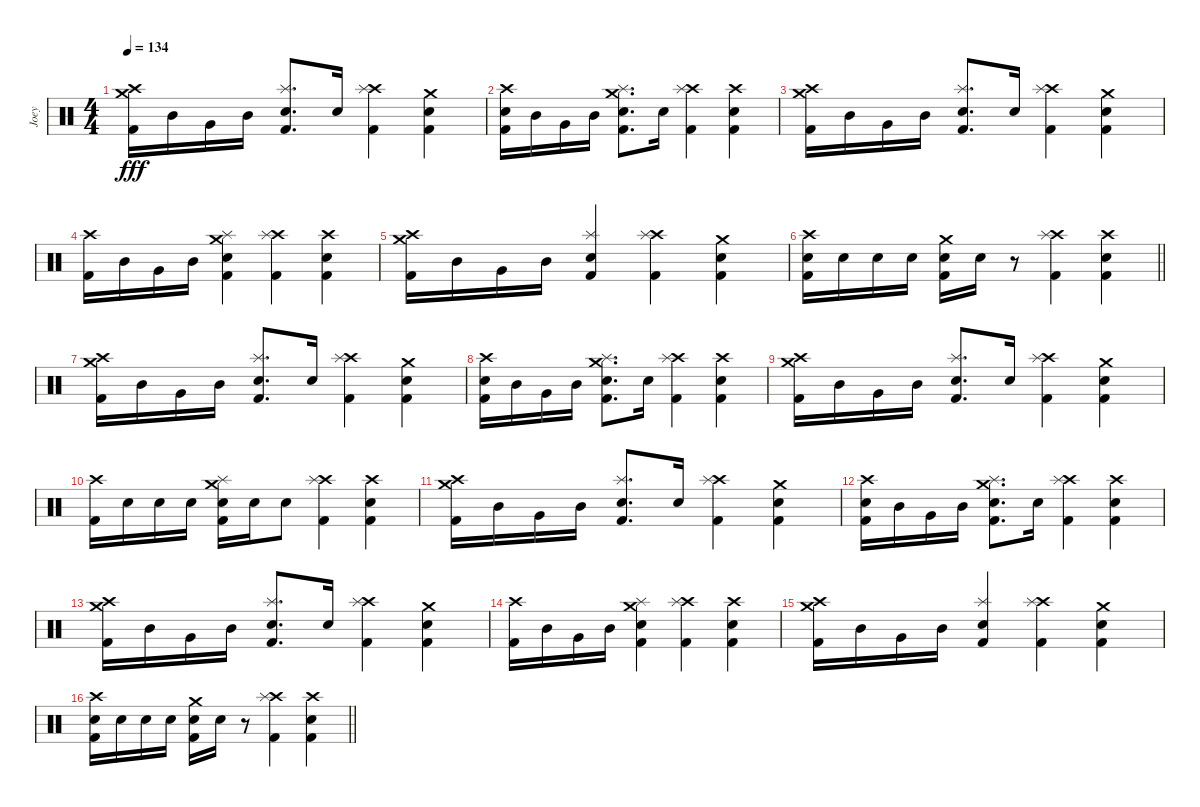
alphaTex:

\track ("Joey" "Joey") {instrument percussion}
\staff {score}
\articulation defaults
\ts (4 4)
\tempo 134
\clef neutral
\ks c
("Crash high (hit)" "Crash medium (hit)" "Kick (hit) 2").16{dy fff} "Mid Tom (hit)".16 "Very Low Tom (hit)".16 "Mid Tom (hit)".16 ("Splash (hit)" "Electric Snare (hit)" "Kick (hit) 2").8{d} "Electric Snare (hit)".16 ("Crash high (hit)" "Splash (hit)" "Kick (hit) 2").4 ("Crash medium (hit)" "Electric Snare (hit)" "Kick (hit) 2").4 |
("Crash high (hit)" "Electric Snare (hit)" "Kick (hit) 2").16 "Mid Tom (hit)".16 "Very Low Tom (hit)".16 "Mid Tom (hit)".16 ("Crash medium (hit)" "Splash (hit)" "Electric Snare (hit)" "Kick (hit) 2").8{d} "Electric Snare (hit)".16 ("Crash high (hit)" "Splash (hit)" "Kick (hit) 2").4 ("Crash high (hit)" "Electric Snare (hit)" "Kick (hit) 2").4 |
("Crash high (hit)" "Crash medium (hit)" "Kick (hit) 2").16 "Mid Tom (hit)".16 "Very Low Tom (hit)".16 "Mid Tom (hit)".16 ("Splash (hit)" "Electric Snare (hit)" "Kick (hit) 2").8{d} "Electric Snare (hit)".16 ("Crash high (hit)" "Splash (hit)" "Kick (hit) 2").4 ("Crash medium (hit)" "Electric Snare (hit)" "Kick (hit) 2").4 |
("Crash high (hit)" "Kick (hit) 2").16 "Mid Tom (hit)".16 "Very Low Tom (hit)".16 "Mid Tom (hit)".16 ("Crash medium (hit)" "Splash (hit)" "Electric Snare (hit)" "Kick (hit) 2").4 ("Crash high (hit)" "Splash (hit)" "Kick (hit) 2").4 ("Crash high (hit)" "Electric Snare (hit)" "Kick (hit) 2").4 |
("Crash high (hit)" "Crash medium (hit)" "Kick (hit) 2").16 "Mid Tom (hit)".16 "Very Low Tom (hit)".16 "Mid Tom (hit)".16 ("Splash (hit)" "Electric Snare (hit)" "Kick (hit) 2").4 ("Crash high (hit)" "Splash (hit)" "Kick (hit) 2").4 ("Crash medium (hit)" "Electric Snare (hit)" "Kick (hit) 2").4 |
\barLineRight lightlight
("Crash high (hit)" "Electric Snare (hit)" "Kick (hit) 2").16 "Electric Snare (hit)".16 "Electric Snare (hit)".16 "Electric Snare (hit)".16 ("Crash medium (hit)" "Electric Snare (hit)" "Kick (hit) 2").16 "Electric Snare (hit)".16 r.8 ("Crash high (hit)" "Splash (hit)" "Kick (hit) 2").4 ("Crash high (hit)" "Electric Snare (hit)" "Kick (hit) 2").4 |
\section ("" "")
("Crash high (hit)" "Crash medium (hit)" "Kick (hit) 2").16 "Mid Tom (hit)".16 "Very Low Tom (hit)".16 "Mid Tom (hit)".16 ("Splash (hit)" "Electric Snare (hit)" "Kick (hit) 2").8{d} "Electric Snare (hit)".16 ("Crash high (hit)" "Splash (hit)" "Kick (hit) 2").4 ("Crash medium (hit)" "Electric Snare (hit)" "Kick (hit) 2").4 |
("Crash high (hit)" "Electric Snare (hit)" "Kick (hit) 2").16 "Mid Tom (hit)".16 "Very Low Tom (hit)".16 "Mid Tom (hit)".16 ("Crash medium (hit)" "Splash (hit)" "Electric Snare (hit)" "Kick (hit) 2").8{d} "Electric Snare (hit)".16 ("Crash high (hit)" "Splash (hit)" "Kick (hit) 2").4 ("Crash high (hit)" "Electric Snare (hit)" "Kick (hit) 2").4 |
("Crash high (hit)" "Crash medium (hit)" "Kick (hit) 2").16 "Mid Tom (hit)".16 "Very Low Tom (hit)".16 "Mid Tom (hit)".16 ("Splash (hit)" "Electric Snare (hit)" "Kick (hit) 2").8{d} "Electric Snare (hit)".16 ("Crash high (hit)" "Splash (hit)" "Kick (hit) 2").4 ("Crash medium (hit)" "Electric Snare (hit)" "Kick (hit) 2").4 |
("Crash high (hit)" "Kick (hit) 2").16 "Electric Snare (hit)".16 "Electric Snare (hit)".16 "Electric Snare (hit)".16 ("Crash medium (hit)" "Splash (hit)" "Electric Snare (hit)" "Kick (hit) 2").16 "Electric Snare (hit)".16 "Electric Snare (hit)".8 ("Crash high (hit)" "Splash (hit)" "Kick (hit) 2").4 ("Crash high (hit)" "Electric Snare (hit)" "Kick (hit) 2").4 |
("Crash high (hit)" "Crash medium (hit)" "Kick (hit) 2").16 "Mid Tom (hit)".16 "Very Low Tom (hit)".16 "Mid Tom (hit)".16 ("Splash (hit)" "Electric Snare (hit)" "Kick (hit) 2").8{d} "Electric Snare (hit)".16 ("Crash high (hit)" "Splash (hit)" "Kick (hit) 2").4 ("Crash medium (hit)" "Electric Snare (hit)" "Kick (hit) 2").4 |
("Crash high (hit)" "Electric Snare (hit)" "Kick (hit) 2").16 "Mid Tom (hit)".16 "Very Low Tom (hit)".16 "Mid Tom (hit)".16 ("Crash medium (hit)" "Splash (hit)" "Electric Snare (hit)" "Kick (hit) 2").8{d} "Electric Snare (hit)".16 ("Crash high (hit)" "Splash (hit)" "Kick (hit) 2").4 ("Crash high (hit)" "Electric Snare (hit)" "Kick (hit) 2").4 |
("Crash high (hit)" "Crash medium (hit)" "Kick (hit) 2").16 "Mid Tom (hit)".16 "Very Low Tom (hit)".16 "Mid Tom (hit)".16 ("Splash (hit)" "Electric Snare (hit)" "Kick (hit) 2").8{d} "Electric Snare (hit)".16 ("Crash high (hit)" "Splash (hit)" "Kick (hit) 2").4 ("Crash medium (hit)" "Electric Snare (hit)" "Kick (hit) 2").4 |
("Crash high (hit)" "Kick (hit) 2").16 "Mid Tom (hit)".16 "Very Low Tom (hit)".16 "Mid Tom (hit)".16 ("Crash medium (hit)" "Splash (hit)" "Electric Snare (hit)" "Kick (hit) 2").4 ("Crash high (hit)" "Splash (hit)" "Kick (hit) 2").4 ("Crash high (hit)" "Electric Snare (hit)" "Kick (hit) 2").4 |
("Crash high (hit)" "Crash medium (hit)" "Kick (hit) 2").16 "Mid Tom (hit)".16 "Very Low Tom (hit)".16 "Mid Tom (hit)".16 ("Splash (hit)" "Electric Snare (hit)" "Kick (hit) 2").4 ("Crash high (hit)" "Splash (hit)" "Kick (hit) 2").4 ("Crash medium (hit)" "Electric Snare (hit)" "Kick (hit) 2").4 |
\barLineRight lightlight
("Crash high (hit)" "Electric Snare (hit)" "Kick (hit) 2").16 "Electric Snare (hit)".16 "Electric Snare (hit)".16 "Electric Snare (hit)".16 ("Crash medium (hit)" "Electric Snare (hit)" "Kick (hit) 2").16 "Electric Snare (hit)".16 r.8 ("Crash high (hit)" "Splash (hit)" "Kick (hit) 2").4 ("Crash high (hit)" "Electric Snare (hit)" "Kick (hit) 2").4
